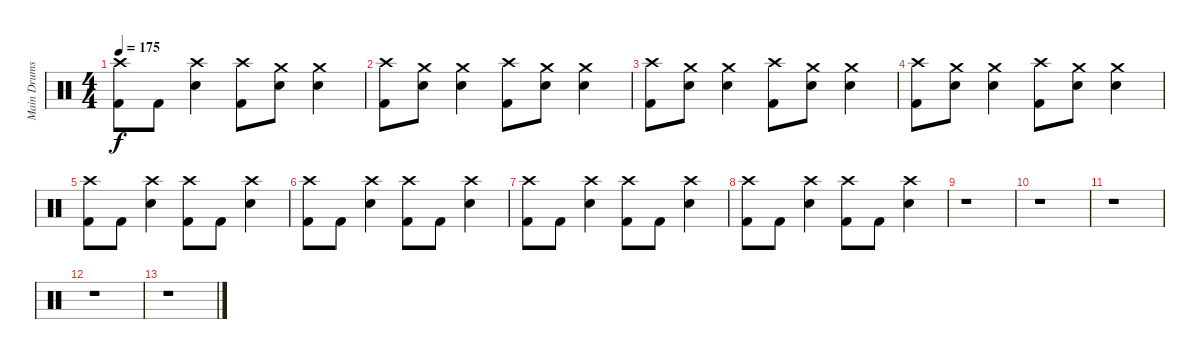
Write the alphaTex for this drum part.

\track ("Main Drums" "Main Drums") {instrument percussion}
\staff {score}
\articulation defaults
\ts (4 4)
\tempo 175
\clef neutral
\ks c
("Crash high (hit)" "Kick (hit) 2").8{dy f} "Kick (hit) 2".8 ("Crash high (hit)" "Electric Snare (hit)").4 ("Crash high (hit)" "Kick (hit) 2").8 ("Crash medium (hit)" "Electric Snare (hit)").8 ("Crash medium (hit)" "Electric Snare (hit)").4 |
("Crash high (hit)" "Kick (hit) 2").8 ("Crash medium (hit)" "Electric Snare (hit)").8 ("Crash medium (hit)" "Electric Snare (hit)").4 ("Crash high (hit)" "Kick (hit) 2").8 ("Crash medium (hit)" "Electric Snare (hit)").8 ("Crash medium (hit)" "Electric Snare (hit)").4 |
("Crash high (hit)" "Kick (hit) 2").8 ("Crash medium (hit)" "Electric Snare (hit)").8 ("Crash medium (hit)" "Electric Snare (hit)").4 ("Crash high (hit)" "Kick (hit) 2").8 ("Crash medium (hit)" "Electric Snare (hit)").8 ("Crash medium (hit)" "Electric Snare (hit)").4 |
("Crash high (hit)" "Kick (hit) 2").8 ("Crash medium (hit)" "Electric Snare (hit)").8 ("Crash medium (hit)" "Electric Snare (hit)").4 ("Crash high (hit)" "Kick (hit) 2").8 ("Crash medium (hit)" "Electric Snare (hit)").8 ("Crash medium (hit)" "Electric Snare (hit)").4 |
("Crash high (hit)" "Kick (hit) 2").8{volume 0} "Kick (hit) 2".8 ("Crash high (hit)" "Electric Snare (hit)").4 ("Crash high (hit)" "Kick (hit) 2").8 "Kick (hit) 2".8 ("Crash high (hit)" "Electric Snare (hit)").4 |
("Crash high (hit)" "Kick (hit) 2").8 "Kick (hit) 2".8 ("Crash high (hit)" "Electric Snare (hit)").4 ("Crash high (hit)" "Kick (hit) 2").8 "Kick (hit) 2".8 ("Crash high (hit)" "Electric Snare (hit)").4 |
("Crash high (hit)" "Kick (hit) 2").8 "Kick (hit) 2".8 ("Crash high (hit)" "Electric Snare (hit)").4 ("Crash high (hit)" "Kick (hit) 2").8 "Kick (hit) 2".8 ("Crash high (hit)" "Electric Snare (hit)").4 |
("Crash high (hit)" "Kick (hit) 2").8 "Kick (hit) 2".8 ("Crash high (hit)" "Electric Snare (hit)").4 ("Crash high (hit)" "Kick (hit) 2").8 "Kick (hit) 2".8 ("Crash high (hit)" "Electric Snare (hit)").4 |
r.1 |
r.1 |
r.1 |
r.1 |
r.1
